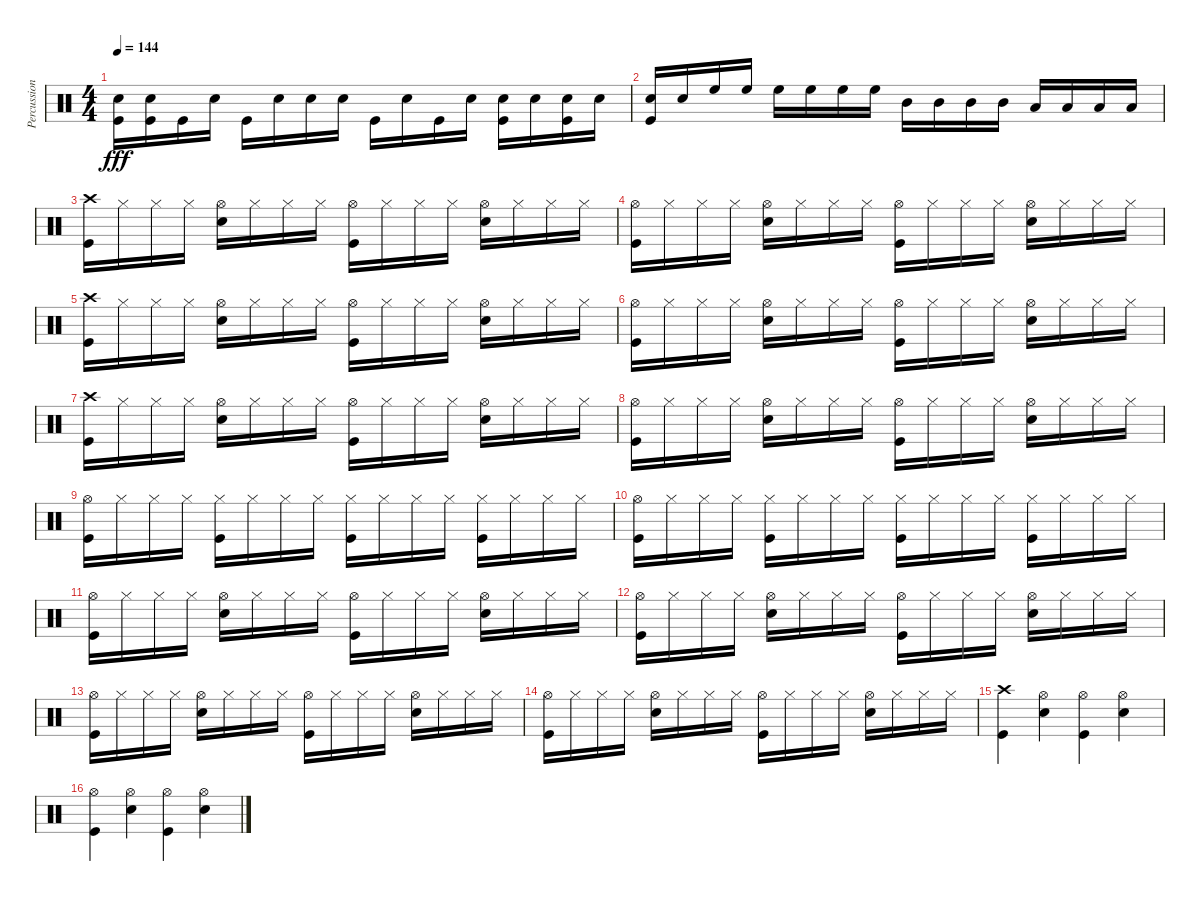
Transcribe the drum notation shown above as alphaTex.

\track ("Percussions" "Percussion") {instrument percussion}
\staff {score}
\articulation defaults
\ts (4 4)
\tempo 144
\clef neutral
\ks c
("Snare (hit) 2" "Kick (hit)").16{dy fff beam Down} ("Snare (hit) 2" "Kick (hit)").16{beam Down} "Kick (hit)".16{beam Down} "Snare (hit) 2".16{beam Down} "Kick (hit)".16{beam Down} "Snare (hit) 2".16{beam Down} "Snare (hit) 2".16{beam Down} "Snare (hit) 2".16{beam Down} "Kick (hit)".16{beam Down} "Snare (hit) 2".16{beam Down} "Kick (hit)".16{beam Down} "Snare (hit) 2".16{beam Down} ("Snare (hit) 2" "Kick (hit)").16{beam Down} "Snare (hit) 2".16{beam Down} ("Snare (hit) 2" "Kick (hit)").16{beam Down} "Snare (hit) 2".16{beam Down} |
("Snare (hit) 2" "Kick (hit)").16 "Snare (hit) 2".16 "High Floor Tom (hit)".16 "High Floor Tom (hit)".16 "High Floor Tom (hit)".16 "High Floor Tom (hit)".16 "High Floor Tom (hit)".16 "High Floor Tom (hit)".16 "Mid Tom (hit)".16 "Mid Tom (hit)".16 "Mid Tom (hit)".16 "Mid Tom (hit)".16 "Low Tom (hit)".16 "Low Tom (hit)".16 "Low Tom (hit)".16 "Low Tom (hit)".16 |
("Crash high (hit)" "Kick (hit)").16 "Hi-Hat (closed)".16 "Hi-Hat (closed)".16 "Hi-Hat (closed)".16 ("Hi-Hat (open)" "Snare (hit) 2").16 "Hi-Hat (closed)".16 "Hi-Hat (closed)".16 "Hi-Hat (closed)".16 ("Hi-Hat (open)" "Kick (hit)").16 "Hi-Hat (closed)".16 "Hi-Hat (closed)".16 "Hi-Hat (closed)".16 ("Hi-Hat (open)" "Snare (hit) 2").16 "Hi-Hat (closed)".16 "Hi-Hat (closed)".16 "Hi-Hat (closed)".16 |
("Hi-Hat (open)" "Kick (hit)").16 "Hi-Hat (closed)".16 "Hi-Hat (closed)".16 "Hi-Hat (closed)".16 ("Hi-Hat (open)" "Snare (hit) 2").16 "Hi-Hat (closed)".16 "Hi-Hat (closed)".16 "Hi-Hat (closed)".16 ("Hi-Hat (open)" "Kick (hit)").16 "Hi-Hat (closed)".16 "Hi-Hat (closed)".16 "Hi-Hat (closed)".16 ("Hi-Hat (open)" "Snare (hit) 2").16 "Hi-Hat (closed)".16 "Hi-Hat (closed)".16 "Hi-Hat (closed)".16 |
("Crash high (hit)" "Kick (hit)").16 "Hi-Hat (closed)".16 "Hi-Hat (closed)".16 "Hi-Hat (closed)".16 ("Hi-Hat (open)" "Snare (hit) 2").16 "Hi-Hat (closed)".16 "Hi-Hat (closed)".16 "Hi-Hat (closed)".16 ("Hi-Hat (open)" "Kick (hit)").16 "Hi-Hat (closed)".16 "Hi-Hat (closed)".16 "Hi-Hat (closed)".16 ("Hi-Hat (open)" "Snare (hit) 2").16 "Hi-Hat (closed)".16 "Hi-Hat (closed)".16 "Hi-Hat (closed)".16 |
("Hi-Hat (open)" "Kick (hit)").16 "Hi-Hat (closed)".16 "Hi-Hat (closed)".16 "Hi-Hat (closed)".16 ("Hi-Hat (open)" "Snare (hit) 2").16 "Hi-Hat (closed)".16 "Hi-Hat (closed)".16 "Hi-Hat (closed)".16 ("Hi-Hat (open)" "Kick (hit)").16 "Hi-Hat (closed)".16 "Hi-Hat (closed)".16 "Hi-Hat (closed)".16 ("Hi-Hat (open)" "Snare (hit) 2").16 "Hi-Hat (closed)".16 "Hi-Hat (closed)".16 "Hi-Hat (closed)".16 |
("Crash high (hit)" "Kick (hit)").16 "Hi-Hat (closed)".16 "Hi-Hat (closed)".16 "Hi-Hat (closed)".16 ("Hi-Hat (open)" "Snare (hit) 2").16 "Hi-Hat (closed)".16 "Hi-Hat (closed)".16 "Hi-Hat (closed)".16 ("Hi-Hat (open)" "Kick (hit)").16 "Hi-Hat (closed)".16 "Hi-Hat (closed)".16 "Hi-Hat (closed)".16 ("Hi-Hat (open)" "Snare (hit) 2").16 "Hi-Hat (closed)".16 "Hi-Hat (closed)".16 "Hi-Hat (closed)".16 |
("Hi-Hat (open)" "Kick (hit)").16 "Hi-Hat (closed)".16 "Hi-Hat (closed)".16 "Hi-Hat (closed)".16 ("Hi-Hat (open)" "Snare (hit) 2").16 "Hi-Hat (closed)".16 "Hi-Hat (closed)".16 "Hi-Hat (closed)".16 ("Hi-Hat (open)" "Kick (hit)").16 "Hi-Hat (closed)".16 "Hi-Hat (closed)".16 "Hi-Hat (closed)".16 ("Hi-Hat (open)" "Snare (hit) 2").16 "Hi-Hat (closed)".16 "Hi-Hat (closed)".16 "Hi-Hat (closed)".16 |
("Hi-Hat (open)" "Kick (hit)").16 "Hi-Hat (closed)".16 "Hi-Hat (closed)".16 "Hi-Hat (closed)".16 ("Hi-Hat (closed)" "Kick (hit)").16 "Hi-Hat (closed)".16 "Hi-Hat (closed)".16 "Hi-Hat (closed)".16 ("Hi-Hat (closed)" "Kick (hit)").16 "Hi-Hat (closed)".16 "Hi-Hat (closed)".16 "Hi-Hat (closed)".16 ("Hi-Hat (closed)" "Kick (hit)").16 "Hi-Hat (closed)".16 "Hi-Hat (closed)".16 "Hi-Hat (closed)".16 |
("Hi-Hat (open)" "Kick (hit)").16 "Hi-Hat (closed)".16 "Hi-Hat (closed)".16 "Hi-Hat (closed)".16 ("Hi-Hat (closed)" "Kick (hit)").16 "Hi-Hat (closed)".16 "Hi-Hat (closed)".16 "Hi-Hat (closed)".16 ("Hi-Hat (closed)" "Kick (hit)").16 "Hi-Hat (closed)".16 "Hi-Hat (closed)".16 "Hi-Hat (closed)".16 ("Hi-Hat (closed)" "Kick (hit)").16 "Hi-Hat (closed)".16 "Hi-Hat (closed)".16 "Hi-Hat (closed)".16 |
("Hi-Hat (open)" "Kick (hit)").16 "Hi-Hat (closed)".16 "Hi-Hat (closed)".16 "Hi-Hat (closed)".16 ("Hi-Hat (open)" "Snare (hit) 2").16 "Hi-Hat (closed)".16 "Hi-Hat (closed)".16 "Hi-Hat (closed)".16 ("Hi-Hat (open)" "Kick (hit)").16 "Hi-Hat (closed)".16 "Hi-Hat (closed)".16 "Hi-Hat (closed)".16 ("Hi-Hat (open)" "Snare (hit) 2").16 "Hi-Hat (closed)".16 "Hi-Hat (closed)".16 "Hi-Hat (closed)".16 |
("Hi-Hat (open)" "Kick (hit)").16 "Hi-Hat (closed)".16 "Hi-Hat (closed)".16 "Hi-Hat (closed)".16 ("Hi-Hat (open)" "Snare (hit) 2").16 "Hi-Hat (closed)".16 "Hi-Hat (closed)".16 "Hi-Hat (closed)".16 ("Hi-Hat (open)" "Kick (hit)").16 "Hi-Hat (closed)".16 "Hi-Hat (closed)".16 "Hi-Hat (closed)".16 ("Hi-Hat (open)" "Snare (hit) 2").16 "Hi-Hat (closed)".16 "Hi-Hat (closed)".16 "Hi-Hat (closed)".16 |
("Hi-Hat (open)" "Kick (hit)").16 "Hi-Hat (closed)".16 "Hi-Hat (closed)".16 "Hi-Hat (closed)".16 ("Hi-Hat (open)" "Snare (hit) 2").16 "Hi-Hat (closed)".16 "Hi-Hat (closed)".16 "Hi-Hat (closed)".16 ("Hi-Hat (open)" "Kick (hit)").16 "Hi-Hat (closed)".16 "Hi-Hat (closed)".16 "Hi-Hat (closed)".16 ("Hi-Hat (open)" "Snare (hit) 2").16 "Hi-Hat (closed)".16 "Hi-Hat (closed)".16 "Hi-Hat (closed)".16 |
("Hi-Hat (open)" "Kick (hit)").16 "Hi-Hat (closed)".16 "Hi-Hat (closed)".16 "Hi-Hat (closed)".16 ("Hi-Hat (open)" "Snare (hit) 2").16 "Hi-Hat (closed)".16 "Hi-Hat (closed)".16 "Hi-Hat (closed)".16 ("Hi-Hat (open)" "Kick (hit)").16 "Hi-Hat (closed)".16 "Hi-Hat (closed)".16 "Hi-Hat (closed)".16 ("Hi-Hat (open)" "Snare (hit) 2").16 "Hi-Hat (closed)".16 "Hi-Hat (closed)".16 "Hi-Hat (closed)".16 |
("Crash high (hit)" "Kick (hit)").4 ("Hi-Hat (open)" "Snare (hit) 2").4 ("Hi-Hat (open)" "Kick (hit)").4 ("Hi-Hat (open)" "Snare (hit) 2").4 |
("Hi-Hat (open)" "Kick (hit)").4 ("Hi-Hat (open)" "Snare (hit) 2").4 ("Hi-Hat (open)" "Kick (hit)").4 ("Hi-Hat (open)" "Snare (hit) 2").4
